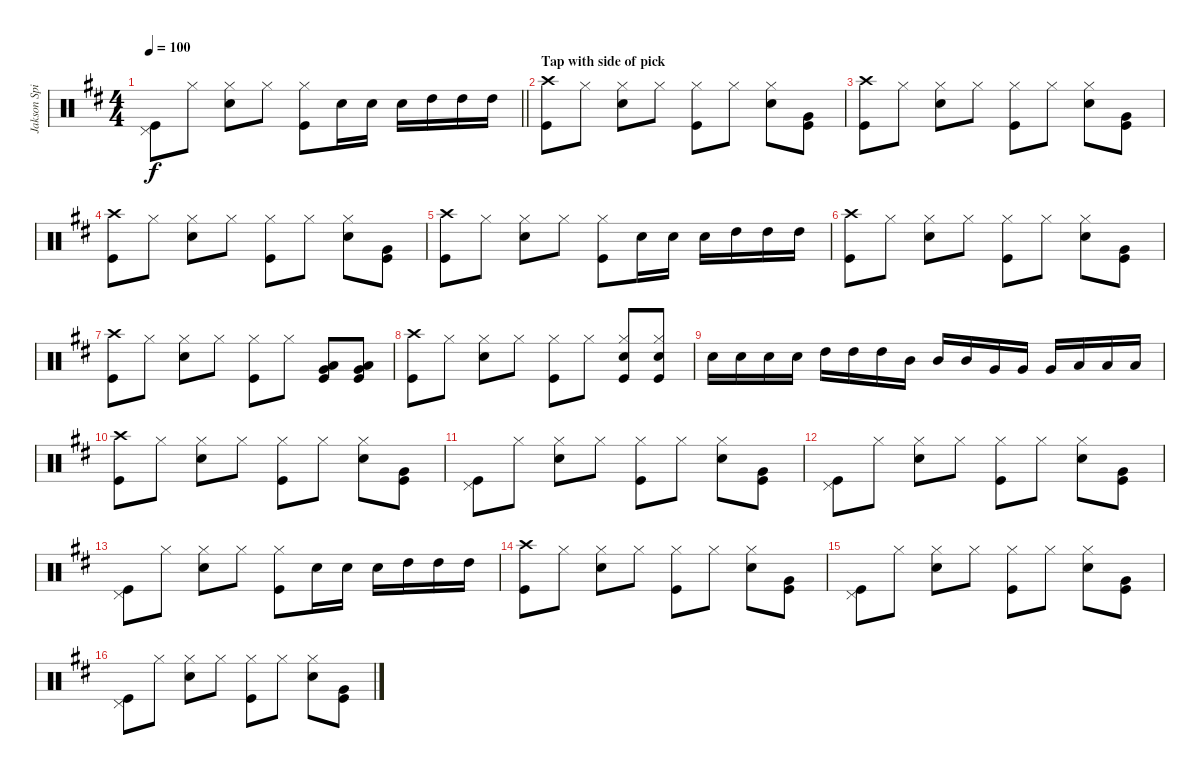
\track ("Jakson Spires Drums" "Jakson Spi") {instrument percussion}
\staff {score}
\articulation defaults
\ts (4 4)
\tempo 100
\clef neutral
\barLineRight lightlight
\ks d
("Pedal Hi-Hat (hit)" "Kick (hit)").8{dy f} "Hi-Hat (closed)".8 ("Hi-Hat (closed)" "Snare (hit) 2").8 "Hi-Hat (closed)".8 ("Hi-Hat (closed)" "Kick (hit)").8 "Snare (hit) 2".16 "Snare (hit) 2".16 "Snare (hit) 2".16 "High Tom (hit)".16 "High Tom (hit)".16 "High Tom (hit)".16 |
\section ("" "Tap with side of pick")
("Crash high (hit)" "Kick (hit)").8 "Hi-Hat (closed)".8 ("Hi-Hat (closed)" "Snare (hit) 2").8 "Hi-Hat (closed)".8 ("Hi-Hat (closed)" "Kick (hit)").8 "Hi-Hat (closed)".8 ("Hi-Hat (closed)" "Snare (hit) 2").8 ("Very Low Tom (hit)" "Kick (hit)").8 |
("Crash high (hit)" "Kick (hit)").8 "Hi-Hat (closed)".8 ("Hi-Hat (closed)" "Snare (hit) 2").8 "Hi-Hat (closed)".8 ("Hi-Hat (closed)" "Kick (hit)").8 "Hi-Hat (closed)".8 ("Hi-Hat (closed)" "Snare (hit) 2").8 ("Very Low Tom (hit)" "Kick (hit)").8 |
("Crash high (hit)" "Kick (hit)").8 "Hi-Hat (closed)".8 ("Hi-Hat (closed)" "Snare (hit) 2").8 "Hi-Hat (closed)".8 ("Hi-Hat (closed)" "Kick (hit)").8 "Hi-Hat (closed)".8 ("Hi-Hat (closed)" "Snare (hit) 2").8 ("Very Low Tom (hit)" "Kick (hit)").8 |
("Crash high (hit)" "Kick (hit)").8 "Hi-Hat (closed)".8 ("Hi-Hat (closed)" "Snare (hit) 2").8 "Hi-Hat (closed)".8 ("Hi-Hat (closed)" "Kick (hit)").8 "Snare (hit) 2".16 "Snare (hit) 2".16 "Snare (hit) 2".16 "High Tom (hit)".16 "High Tom (hit)".16 "High Tom (hit)".16 |
("Crash high (hit)" "Kick (hit)").8 "Hi-Hat (closed)".8 ("Hi-Hat (closed)" "Snare (hit) 2").8 "Hi-Hat (closed)".8 ("Hi-Hat (closed)" "Kick (hit)").8 "Hi-Hat (closed)".8 ("Hi-Hat (closed)" "Snare (hit) 2").8 ("Very Low Tom (hit)" "Kick (hit)").8 |
("Crash high (hit)" "Kick (hit)").8 "Hi-Hat (closed)".8 ("Hi-Hat (closed)" "Snare (hit) 2").8 "Hi-Hat (closed)".8 ("Hi-Hat (closed)" "Kick (hit)").8 "Hi-Hat (closed)".8 ("Very Low Tom (hit)" "Low Tom (hit)" "Kick (hit)").8 ("Very Low Tom (hit)" "Low Tom (hit)" "Kick (hit)").8 |
("Crash high (hit)" "Kick (hit)").8 "Hi-Hat (closed)".8 ("Hi-Hat (closed)" "Snare (hit) 2").8 "Hi-Hat (closed)".8 ("Hi-Hat (closed)" "Kick (hit)").8 "Hi-Hat (closed)".8 ("Hi-Hat (closed)" "Snare (hit) 2" "Kick (hit)").8 ("Hi-Hat (closed)" "Snare (hit) 2" "Kick (hit)").8 |
"Snare (hit) 2".16 "Snare (hit) 2".16 "Snare (hit) 2".16 "Snare (hit) 2".16 "High Tom (hit)".16 "High Tom (hit)".16 "High Tom (hit)".16 "Mid Tom (hit)".16 "Mid Tom (hit)".16 "Mid Tom (hit)".16 "Very Low Tom (hit)".16 "Very Low Tom (hit)".16 "Very Low Tom (hit)".16 "Low Tom (hit)".16 "Low Tom (hit)".16 "Low Tom (hit)".16 |
("Crash high (hit)" "Kick (hit)").8 "Hi-Hat (closed)".8 ("Hi-Hat (closed)" "Snare (hit) 2").8 "Hi-Hat (closed)".8 ("Hi-Hat (closed)" "Kick (hit)").8 "Hi-Hat (closed)".8 ("Hi-Hat (closed)" "Snare (hit) 2").8 ("Very Low Tom (hit)" "Kick (hit)").8 |
("Pedal Hi-Hat (hit)" "Kick (hit)").8 "Hi-Hat (closed)".8 ("Hi-Hat (closed)" "Snare (hit) 2").8 "Hi-Hat (closed)".8 ("Hi-Hat (closed)" "Kick (hit)").8 "Hi-Hat (closed)".8 ("Hi-Hat (closed)" "Snare (hit) 2").8 ("Very Low Tom (hit)" "Kick (hit)").8 |
("Pedal Hi-Hat (hit)" "Kick (hit)").8 "Hi-Hat (closed)".8 ("Hi-Hat (closed)" "Snare (hit) 2").8 "Hi-Hat (closed)".8 ("Hi-Hat (closed)" "Kick (hit)").8 "Hi-Hat (closed)".8 ("Hi-Hat (closed)" "Snare (hit) 2").8 ("Very Low Tom (hit)" "Kick (hit)").8 |
("Pedal Hi-Hat (hit)" "Kick (hit)").8 "Hi-Hat (closed)".8 ("Hi-Hat (closed)" "Snare (hit) 2").8 "Hi-Hat (closed)".8 ("Hi-Hat (closed)" "Kick (hit)").8 "Snare (hit) 2".16 "Snare (hit) 2".16 "Snare (hit) 2".16 "High Tom (hit)".16 "High Tom (hit)".16 "High Tom (hit)".16 |
("Crash high (hit)" "Kick (hit)").8 "Hi-Hat (closed)".8 ("Hi-Hat (closed)" "Snare (hit) 2").8 "Hi-Hat (closed)".8 ("Hi-Hat (closed)" "Kick (hit)").8 "Hi-Hat (closed)".8 ("Hi-Hat (closed)" "Snare (hit) 2").8 ("Very Low Tom (hit)" "Kick (hit)").8 |
("Pedal Hi-Hat (hit)" "Kick (hit)").8 "Hi-Hat (closed)".8 ("Hi-Hat (closed)" "Snare (hit) 2").8 "Hi-Hat (closed)".8 ("Hi-Hat (closed)" "Kick (hit)").8 "Hi-Hat (closed)".8 ("Hi-Hat (closed)" "Snare (hit) 2").8 ("Very Low Tom (hit)" "Kick (hit)").8 |
("Pedal Hi-Hat (hit)" "Kick (hit)").8 "Hi-Hat (closed)".8 ("Hi-Hat (closed)" "Snare (hit) 2").8 "Hi-Hat (closed)".8 ("Hi-Hat (closed)" "Kick (hit)").8 "Hi-Hat (closed)".8 ("Hi-Hat (closed)" "Snare (hit) 2").8 ("Very Low Tom (hit)" "Kick (hit)").8
